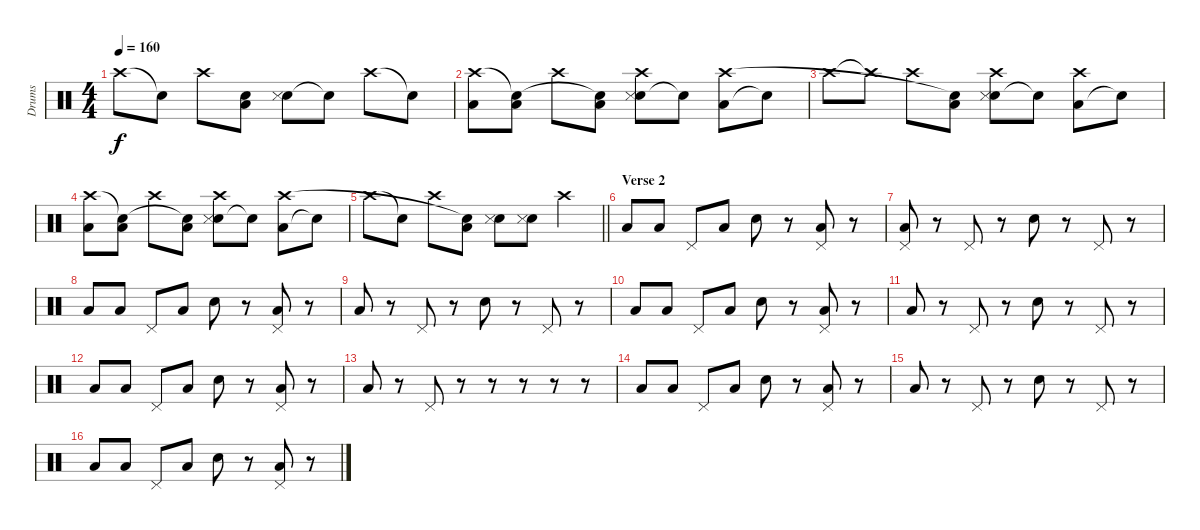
\track ("Drums" "Drums") {instrument percussion}
\staff {score}
\articulation defaults
\ts (4 4)
\tempo 160
\clef neutral
\ks c "Crash high (hit)".8{dy f} "Snare (hit)"{t}.8 "Crash high (hit)".8
("Low Floor Tom (hit)" "Snare (hit)"{t}).8 ("Snare (hit) 2" "Snare (side stick) 3").8 "Snare (hit)"{t}.8 "Crash high (hit)".8 "Snare (hit)"{t}.8 |
("Low Floor Tom (hit)" "Crash high (hit)").8 ("Low Floor Tom (hit)" "Snare (hit)"{t}).8 "Crash high (hit)".8 ("Low Floor Tom (hit)" "Snare (hit)"{t}).8 ("Snare (hit) 2" "Snare (side stick) 3" "Crash high (hit)").8 "Snare (hit)"{t}.8 ("Low Floor Tom (hit)" "Crash high (hit)").8 "Snare (hit)"{t}.8 |
"Crash high (hit)".8 "Crash high (hit)"{t}.8 "Crash high (hit)".8 ("Low Floor Tom (hit)" "Snare (hit)"{t}).8 ("Snare (hit) 2" "Snare (side stick) 3" "Crash high (hit)").8 "Snare (hit)"{t}.8 ("Low Floor Tom (hit)" "Crash high (hit)").8 "Snare (hit)"{t}.8 |
("Low Floor Tom (hit)" "Crash high (hit)").8 ("Low Floor Tom (hit)" "Snare (hit)"{t}).8 "Crash high (hit)".8 ("Low Floor Tom (hit)" "Snare (hit)"{t}).8 ("Snare (hit) 2" "Snare (side stick) 3" "Crash high (hit)").8 "Snare (hit)"{t}.8 ("Low Floor Tom (hit)" "Crash high (hit)").8 "Snare (hit)"{t}.8 |
\barLineRight lightlight "Crash high (hit)".8 "Snare (hit)"{t}.8 "Crash high (hit)".8
("Low Floor Tom (hit)" "Snare (hit)"{t}).8 ("Snare (hit) 2" "Snare (side stick) 3").8 ("Snare (hit) 2" "Snare (side stick) 3").8 "Crash high (hit)".4 |
\section ("" "Verse 2")
"Low Floor Tom (hit)".8 "Low Floor Tom (hit)".8 "Pedal Hi-Hat (hit)".8 "Low Floor Tom (hit)".8 "Snare (hit) 2".8 r.8 ("Low Floor Tom (hit)" "Pedal Hi-Hat (hit)").8 r.8 |
("Low Floor Tom (hit)" "Pedal Hi-Hat (hit)").8 r.8 "Pedal Hi-Hat (hit)".8 r.8 "Snare (hit) 2".8 r.8 "Pedal Hi-Hat (hit)".8 r.8 |
"Low Floor Tom (hit)".8 "Low Floor Tom (hit)".8 "Pedal Hi-Hat (hit)".8 "Low Floor Tom (hit)".8 "Snare (hit) 2".8 r.8 ("Low Floor Tom (hit)" "Pedal Hi-Hat (hit)").8 r.8 |
"Low Floor Tom (hit)".8 r.8 "Pedal Hi-Hat (hit)".8 r.8 "Snare (hit) 2".8 r.8 "Pedal Hi-Hat (hit)".8 r.8 |
"Low Floor Tom (hit)".8 "Low Floor Tom (hit)".8 "Pedal Hi-Hat (hit)".8 "Low Floor Tom (hit)".8 "Snare (hit) 2".8 r.8 ("Low Floor Tom (hit)" "Pedal Hi-Hat (hit)").8 r.8 |
"Low Floor Tom (hit)".8 r.8 "Pedal Hi-Hat (hit)".8 r.8 "Snare (hit) 2".8 r.8 "Pedal Hi-Hat (hit)".8 r.8 |
"Low Floor Tom (hit)".8 "Low Floor Tom (hit)".8 "Pedal Hi-Hat (hit)".8 "Low Floor Tom (hit)".8 "Snare (hit) 2".8 r.8 ("Low Floor Tom (hit)" "Pedal Hi-Hat (hit)").8 r.8 |
"Low Floor Tom (hit)".8 r.8 "Pedal Hi-Hat (hit)".8 r.8 r.8 r.8 r.8 r.8 |
"Low Floor Tom (hit)".8 "Low Floor Tom (hit)".8 "Pedal Hi-Hat (hit)".8 "Low Floor Tom (hit)".8 "Snare (hit) 2".8 r.8 ("Low Floor Tom (hit)" "Pedal Hi-Hat (hit)").8 r.8 |
"Low Floor Tom (hit)".8 r.8 "Pedal Hi-Hat (hit)".8 r.8 "Snare (hit) 2".8 r.8 "Pedal Hi-Hat (hit)".8 r.8 |
"Low Floor Tom (hit)".8 "Low Floor Tom (hit)".8 "Pedal Hi-Hat (hit)".8 "Low Floor Tom (hit)".8 "Snare (hit) 2".8 r.8 ("Low Floor Tom (hit)" "Pedal Hi-Hat (hit)").8 r.8
